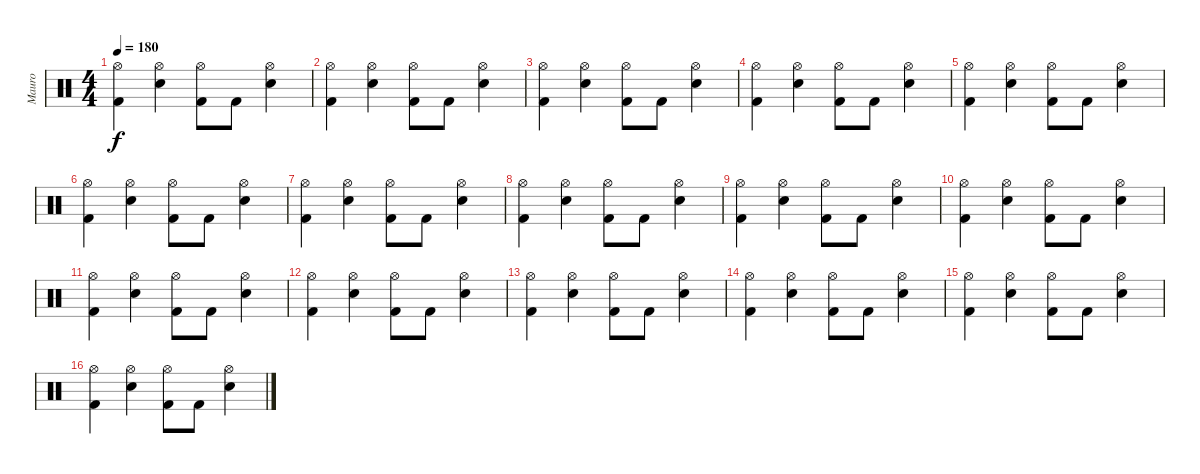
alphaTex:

\track ("Mauro" "Mauro") {instrument percussion}
\staff {score}
\articulation defaults
\ts (4 4)
\tempo 180
\clef neutral
\ks c
("Hi-Hat (open)" "Kick (hit) 2").4{dy f} ("Hi-Hat (open)" "Snare (hit) 2").4 ("Hi-Hat (open)" "Kick (hit) 2").8 "Kick (hit) 2".8 ("Hi-Hat (open)" "Snare (hit) 2").4 |
("Hi-Hat (open)" "Kick (hit) 2").4 ("Hi-Hat (open)" "Snare (hit) 2").4 ("Hi-Hat (open)" "Kick (hit) 2").8 "Kick (hit) 2".8 ("Hi-Hat (open)" "Snare (hit) 2").4 |
("Hi-Hat (open)" "Kick (hit) 2").4 ("Hi-Hat (open)" "Snare (hit) 2").4 ("Hi-Hat (open)" "Kick (hit) 2").8 "Kick (hit) 2".8 ("Hi-Hat (open)" "Snare (hit) 2").4 |
("Hi-Hat (open)" "Kick (hit) 2").4 ("Hi-Hat (open)" "Snare (hit) 2").4 ("Hi-Hat (open)" "Kick (hit) 2").8 "Kick (hit) 2".8 ("Hi-Hat (open)" "Snare (hit) 2").4 |
("Hi-Hat (open)" "Kick (hit) 2").4 ("Hi-Hat (open)" "Snare (hit) 2").4 ("Hi-Hat (open)" "Kick (hit) 2").8 "Kick (hit) 2".8 ("Hi-Hat (open)" "Snare (hit) 2").4 |
("Hi-Hat (open)" "Kick (hit) 2").4 ("Hi-Hat (open)" "Snare (hit) 2").4 ("Hi-Hat (open)" "Kick (hit) 2").8 "Kick (hit) 2".8 ("Hi-Hat (open)" "Snare (hit) 2").4 |
("Hi-Hat (open)" "Kick (hit) 2").4 ("Hi-Hat (open)" "Snare (hit) 2").4 ("Hi-Hat (open)" "Kick (hit) 2").8 "Kick (hit) 2".8 ("Hi-Hat (open)" "Snare (hit) 2").4 |
("Hi-Hat (open)" "Kick (hit) 2").4 ("Hi-Hat (open)" "Snare (hit) 2").4 ("Hi-Hat (open)" "Kick (hit) 2").8 "Kick (hit) 2".8 ("Hi-Hat (open)" "Snare (hit) 2").4 |
("Hi-Hat (open)" "Kick (hit) 2").4 ("Hi-Hat (open)" "Snare (hit) 2").4 ("Hi-Hat (open)" "Kick (hit) 2").8 "Kick (hit) 2".8 ("Hi-Hat (open)" "Snare (hit) 2").4 |
("Hi-Hat (open)" "Kick (hit) 2").4 ("Hi-Hat (open)" "Snare (hit) 2").4 ("Hi-Hat (open)" "Kick (hit) 2").8 "Kick (hit) 2".8 ("Hi-Hat (open)" "Snare (hit) 2").4 |
("Hi-Hat (open)" "Kick (hit) 2").4 ("Hi-Hat (open)" "Snare (hit) 2").4 ("Hi-Hat (open)" "Kick (hit) 2").8 "Kick (hit) 2".8 ("Hi-Hat (open)" "Snare (hit) 2").4 |
("Hi-Hat (open)" "Kick (hit) 2").4 ("Hi-Hat (open)" "Snare (hit) 2").4 ("Hi-Hat (open)" "Kick (hit) 2").8 "Kick (hit) 2".8 ("Hi-Hat (open)" "Snare (hit) 2").4 |
("Hi-Hat (open)" "Kick (hit) 2").4 ("Hi-Hat (open)" "Snare (hit) 2").4 ("Hi-Hat (open)" "Kick (hit) 2").8 "Kick (hit) 2".8 ("Hi-Hat (open)" "Snare (hit) 2").4 |
("Hi-Hat (open)" "Kick (hit) 2").4 ("Hi-Hat (open)" "Snare (hit) 2").4 ("Hi-Hat (open)" "Kick (hit) 2").8 "Kick (hit) 2".8 ("Hi-Hat (open)" "Snare (hit) 2").4 |
("Hi-Hat (open)" "Kick (hit) 2").4 ("Hi-Hat (open)" "Snare (hit) 2").4 ("Hi-Hat (open)" "Kick (hit) 2").8 "Kick (hit) 2".8 ("Hi-Hat (open)" "Snare (hit) 2").4 |
("Hi-Hat (open)" "Kick (hit) 2").4 ("Hi-Hat (open)" "Snare (hit) 2").4 ("Hi-Hat (open)" "Kick (hit) 2").8 "Kick (hit) 2".8 ("Hi-Hat (open)" "Snare (hit) 2").4
